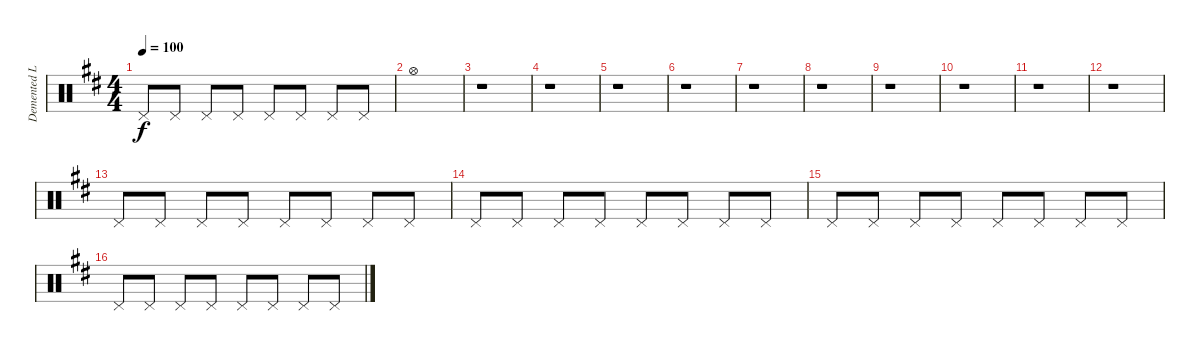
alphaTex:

\track ("Demented Leming (Drums)" "Demented L") {instrument percussion}
\staff {score}
\articulation defaults
\ts (4 4)
\tempo 100
\clef neutral
\ks d "Pedal Hi-Hat (hit)".8{dy f} "Pedal Hi-Hat (hit)".8 "Pedal Hi-Hat (hit)".8 "Pedal Hi-Hat (hit)".8 "Pedal Hi-Hat (hit)".8 "Pedal Hi-Hat (hit)".8 "Pedal Hi-Hat (hit)".8 "Pedal Hi-Hat (hit)".8
|
"Hi-Hat (open)".1 |
r.1 |
r.1 |
r.1 |
r.1 |
r.1 |
r.1 |
r.1 |
r.1 |
r.1 |
r.1 |
"Pedal Hi-Hat (hit)".8 "Pedal Hi-Hat (hit)".8 "Pedal Hi-Hat (hit)".8 "Pedal Hi-Hat (hit)".8 "Pedal Hi-Hat (hit)".8 "Pedal Hi-Hat (hit)".8 "Pedal Hi-Hat (hit)".8 "Pedal Hi-Hat (hit)".8 |
"Pedal Hi-Hat (hit)".8 "Pedal Hi-Hat (hit)".8 "Pedal Hi-Hat (hit)".8 "Pedal Hi-Hat (hit)".8 "Pedal Hi-Hat (hit)".8 "Pedal Hi-Hat (hit)".8 "Pedal Hi-Hat (hit)".8 "Pedal Hi-Hat (hit)".8 |
"Pedal Hi-Hat (hit)".8 "Pedal Hi-Hat (hit)".8 "Pedal Hi-Hat (hit)".8 "Pedal Hi-Hat (hit)".8 "Pedal Hi-Hat (hit)".8 "Pedal Hi-Hat (hit)".8 "Pedal Hi-Hat (hit)".8 "Pedal Hi-Hat (hit)".8 |
"Pedal Hi-Hat (hit)".8 "Pedal Hi-Hat (hit)".8 "Pedal Hi-Hat (hit)".8 "Pedal Hi-Hat (hit)".8 "Pedal Hi-Hat (hit)".8 "Pedal Hi-Hat (hit)".8 "Pedal Hi-Hat (hit)".8 "Pedal Hi-Hat (hit)".8
